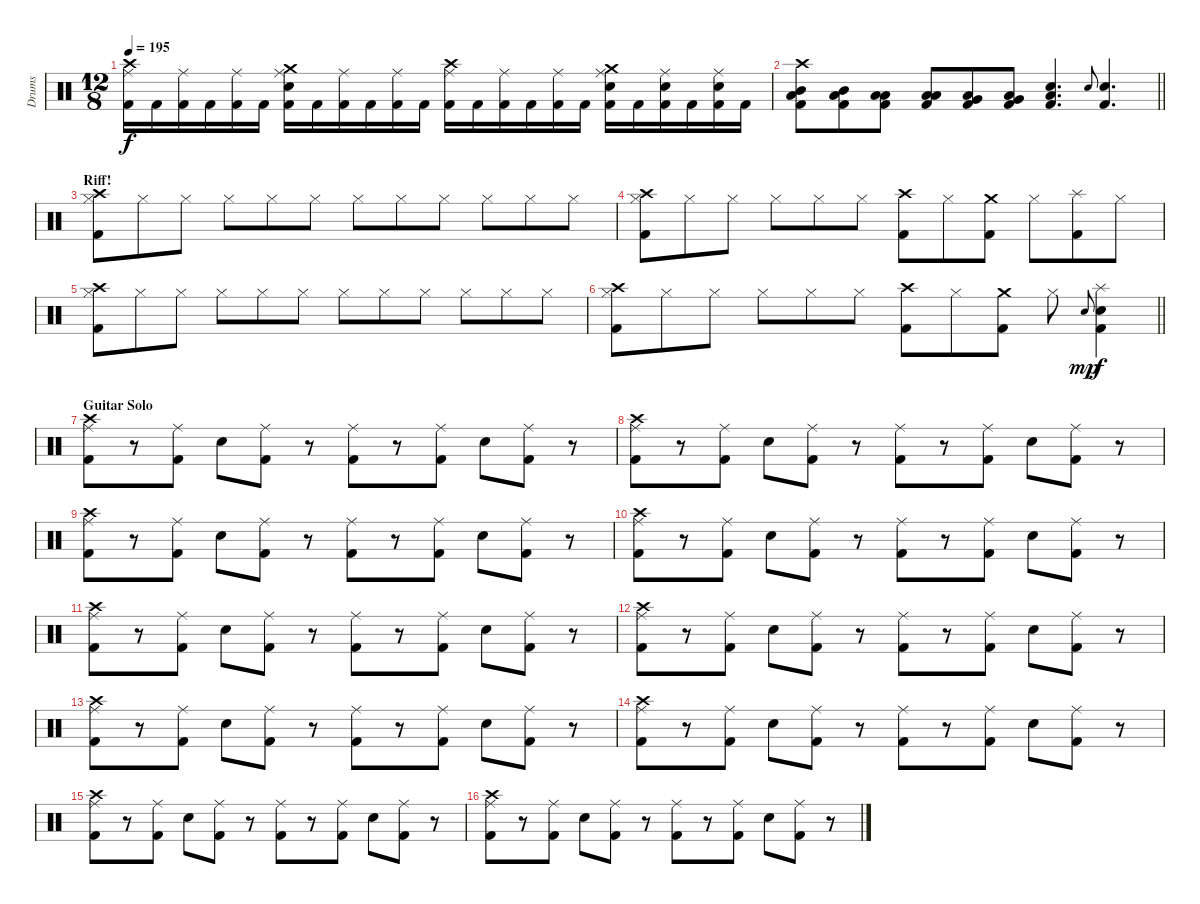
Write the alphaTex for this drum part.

\track ("Drums" "Drums") {instrument percussion}
\staff {score}
\articulation defaults
\ts (12 8)
\tempo 195
\clef neutral
\ks c
("Crash high (hit)" "Ride (middle)" "Kick (hit) 2").16{dy f} "Kick (hit) 2".16 ("Ride (middle)" "Kick (hit) 2").16 "Kick (hit) 2".16 ("Ride (middle)" "Kick (hit) 2").16 "Kick (hit) 2".16 ("Crash medium (hit)" "Ride (middle)" "Snare (hit) 2" "Kick (hit) 2").16 "Kick (hit) 2".16 ("Ride (middle)" "Kick (hit) 2").16 "Kick (hit) 2".16 ("Ride (middle)" "Kick (hit) 2").16 "Kick (hit) 2".16 ("Crash high (hit)" "Ride (middle)" "Kick (hit) 2").16 "Kick (hit) 2".16 ("Ride (middle)" "Kick (hit) 2").16 "Kick (hit) 2".16 ("Ride (middle)" "Kick (hit) 2").16 "Kick (hit) 2".16 ("Crash medium (hit)" "Ride (middle)" "Snare (hit) 2" "Kick (hit) 2").16 "Kick (hit) 2".16 ("Ride (middle)" "Snare (hit) 2" "Kick (hit) 2").16 "Kick (hit) 2".16 ("Ride (middle)" "Snare (hit) 2" "Kick (hit) 2").16 "Kick (hit) 2".16 |
\barLineRight lightlight
("Crash high (hit)" "Mid Tom (hit)" "Low Floor Tom (hit)" "Kick (hit) 2").8 ("Mid Tom (hit)" "Low Floor Tom (hit)" "Kick (hit) 2").8 ("Low Tom (hit)" "Low Floor Tom (hit)" "Kick (hit) 2").8 ("Low Tom (hit)" "Low Floor Tom (hit)" "Kick (hit) 2").8 ("Very Low Tom (hit)" "Low Floor Tom (hit)" "Kick (hit) 2").8 ("Very Low Tom (hit)" "Low Floor Tom (hit)" "Kick (hit) 2").8 ("Low Floor Tom (hit)" "Snare (hit)" "Kick (hit) 2").4{d} "Snare (hit) 2".8{gr onbeat} ("Snare (hit) 2" "Kick (hit) 2").4{d} |
\section ("" "Riff!")
("Crash high (hit)" "Hi-Hat (closed)" "Kick (hit) 2").8 "Hi-Hat (closed)".8 "Hi-Hat (closed)".8 "Hi-Hat (closed)".8 "Hi-Hat (closed)".8 "Hi-Hat (closed)".8 "Hi-Hat (closed)".8 "Hi-Hat (closed)".8 "Hi-Hat (closed)".8 "Hi-Hat (closed)".8 "Hi-Hat (closed)".8 "Hi-Hat (closed)".8 |
("Crash high (hit)" "Hi-Hat (closed)" "Kick (hit) 2").8 "Hi-Hat (closed)".8 "Hi-Hat (closed)".8 "Hi-Hat (closed)".8 "Hi-Hat (closed)".8 "Hi-Hat (closed)".8 ("Crash high (hit)" "Kick (hit) 2").8 "Hi-Hat (closed)".8 ("Crash medium (hit)" "Kick (hit) 2").8 "Hi-Hat (closed)".8 ("Splash (hit)" "Kick (hit) 2").8 "Hi-Hat (closed)".8 |
("Crash high (hit)" "Hi-Hat (closed)" "Kick (hit) 2").8 "Hi-Hat (closed)".8 "Hi-Hat (closed)".8 "Hi-Hat (closed)".8 "Hi-Hat (closed)".8 "Hi-Hat (closed)".8 "Hi-Hat (closed)".8 "Hi-Hat (closed)".8 "Hi-Hat (closed)".8 "Hi-Hat (closed)".8 "Hi-Hat (closed)".8 "Hi-Hat (closed)".8 |
\barLineRight lightlight
("Crash high (hit)" "Hi-Hat (closed)" "Kick (hit) 2").8 "Hi-Hat (closed)".8 "Hi-Hat (closed)".8 "Hi-Hat (closed)".8 "Hi-Hat (closed)".8 "Hi-Hat (closed)".8 ("Crash high (hit)" "Kick (hit) 2").8 "Hi-Hat (closed)".8 ("Crash medium (hit)" "Kick (hit) 2").8 "Hi-Hat (closed)".8 "Snare (hit) 2".8{gr onbeat dy mp} ("Splash (hit)" "Snare (hit) 2" "Kick (hit) 2").4{dy f} |
\section ("" "Guitar Solo")
("Crash high (hit)" "Ride (middle)" "Kick (hit) 2").8 r.8 ("Ride (middle)" "Kick (hit) 2").8 "Snare (hit) 2".8 ("Ride (middle)" "Kick (hit) 2").8 r.8 ("Ride (middle)" "Kick (hit) 2").8 r.8 ("Ride (middle)" "Kick (hit) 2").8 "Snare (hit) 2".8 ("Ride (middle)" "Kick (hit) 2").8 r.8 |
("Crash high (hit)" "Ride (middle)" "Kick (hit) 2").8 r.8 ("Ride (middle)" "Kick (hit) 2").8 "Snare (hit) 2".8 ("Ride (middle)" "Kick (hit) 2").8 r.8 ("Ride (middle)" "Kick (hit) 2").8 r.8 ("Ride (middle)" "Kick (hit) 2").8 "Snare (hit) 2".8 ("Ride (middle)" "Kick (hit) 2").8 r.8 |
("Crash high (hit)" "Ride (middle)" "Kick (hit) 2").8 r.8 ("Ride (middle)" "Kick (hit) 2").8 "Snare (hit) 2".8 ("Ride (middle)" "Kick (hit) 2").8 r.8 ("Ride (middle)" "Kick (hit) 2").8 r.8 ("Ride (middle)" "Kick (hit) 2").8 "Snare (hit) 2".8 ("Ride (middle)" "Kick (hit) 2").8 r.8 |
("Crash high (hit)" "Ride (middle)" "Kick (hit) 2").8 r.8 ("Ride (middle)" "Kick (hit) 2").8 "Snare (hit) 2".8 ("Ride (middle)" "Kick (hit) 2").8 r.8 ("Ride (middle)" "Kick (hit) 2").8 r.8 ("Ride (middle)" "Kick (hit) 2").8 "Snare (hit) 2".8 ("Ride (middle)" "Kick (hit) 2").8 r.8 |
("Crash high (hit)" "Ride (middle)" "Kick (hit) 2").8 r.8 ("Ride (middle)" "Kick (hit) 2").8 "Snare (hit) 2".8 ("Ride (middle)" "Kick (hit) 2").8 r.8 ("Ride (middle)" "Kick (hit) 2").8 r.8 ("Ride (middle)" "Kick (hit) 2").8 "Snare (hit) 2".8 ("Ride (middle)" "Kick (hit) 2").8 r.8 |
("Crash high (hit)" "Ride (middle)" "Kick (hit) 2").8 r.8 ("Ride (middle)" "Kick (hit) 2").8 "Snare (hit) 2".8 ("Ride (middle)" "Kick (hit) 2").8 r.8 ("Ride (middle)" "Kick (hit) 2").8 r.8 ("Ride (middle)" "Kick (hit) 2").8 "Snare (hit) 2".8 ("Ride (middle)" "Kick (hit) 2").8 r.8 |
("Crash high (hit)" "Ride (middle)" "Kick (hit) 2").8 r.8 ("Ride (middle)" "Kick (hit) 2").8 "Snare (hit) 2".8 ("Ride (middle)" "Kick (hit) 2").8 r.8 ("Ride (middle)" "Kick (hit) 2").8 r.8 ("Ride (middle)" "Kick (hit) 2").8 "Snare (hit) 2".8 ("Ride (middle)" "Kick (hit) 2").8 r.8 |
("Crash high (hit)" "Ride (middle)" "Kick (hit) 2").8 r.8 ("Ride (middle)" "Kick (hit) 2").8 "Snare (hit) 2".8 ("Ride (middle)" "Kick (hit) 2").8 r.8 ("Ride (middle)" "Kick (hit) 2").8 r.8 ("Ride (middle)" "Kick (hit) 2").8 "Snare (hit) 2".8 ("Ride (middle)" "Kick (hit) 2").8 r.8 |
("Crash high (hit)" "Ride (middle)" "Kick (hit) 2").8 r.8 ("Ride (middle)" "Kick (hit) 2").8 "Snare (hit) 2".8 ("Ride (middle)" "Kick (hit) 2").8 r.8 ("Ride (middle)" "Kick (hit) 2").8 r.8 ("Ride (middle)" "Kick (hit) 2").8 "Snare (hit) 2".8 ("Ride (middle)" "Kick (hit) 2").8 r.8 |
("Crash high (hit)" "Ride (middle)" "Kick (hit) 2").8 r.8 ("Ride (middle)" "Kick (hit) 2").8 "Snare (hit) 2".8 ("Ride (middle)" "Kick (hit) 2").8 r.8 ("Ride (middle)" "Kick (hit) 2").8 r.8 ("Ride (middle)" "Kick (hit) 2").8 "Snare (hit) 2".8 ("Ride (middle)" "Kick (hit) 2").8 r.8
